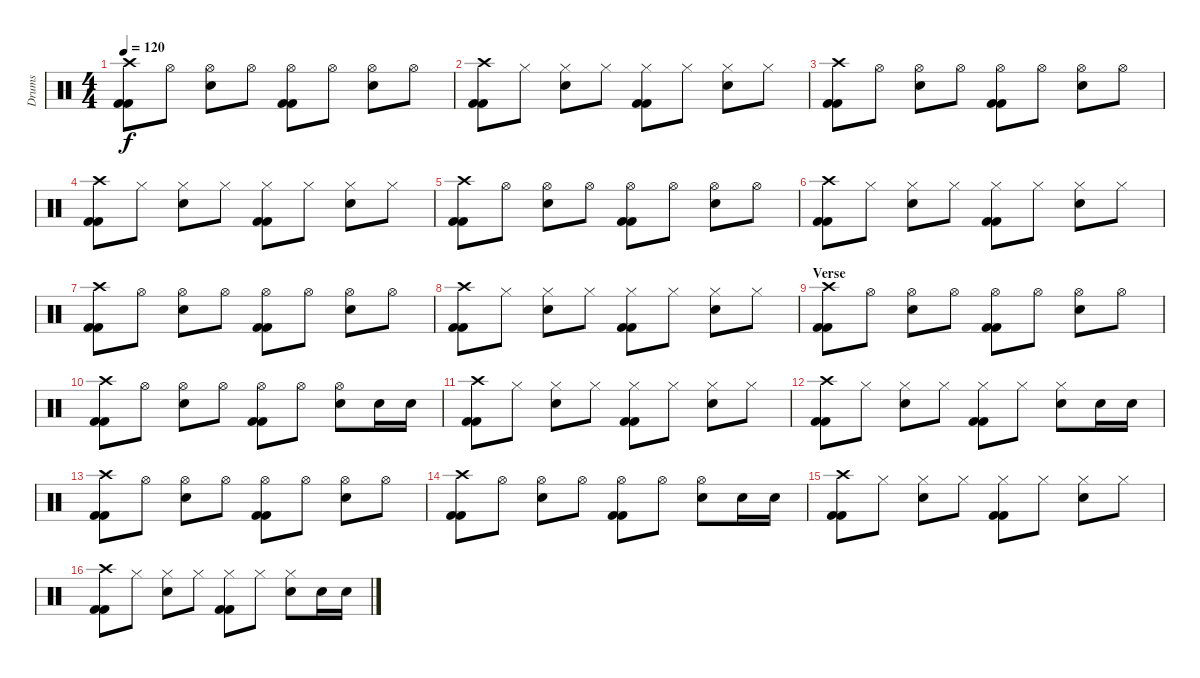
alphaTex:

\track ("Drums" "Drums") {instrument percussion}
\staff {score}
\articulation defaults
\ts (4 4)
\tempo 120
\clef neutral
\ks c
("Crash high (hit)" "Kick (hit) 2" "Kick (hit) 2").8{dy f} "Hi-Hat (open)".8 ("Hi-Hat (open)" "Electric Snare (hit)").8 "Hi-Hat (open)".8 ("Hi-Hat (open)" "Kick (hit) 2" "Kick (hit) 2").8 "Hi-Hat (open)".8 ("Hi-Hat (open)" "Electric Snare (hit)").8 "Hi-Hat (open)".8 |
("Crash high (hit)" "Kick (hit) 2" "Kick (hit) 2").8 "Hi-Hat (closed)".8 ("Hi-Hat (closed)" "Electric Snare (hit)").8 "Hi-Hat (closed)".8 ("Hi-Hat (closed)" "Kick (hit) 2" "Kick (hit) 2").8 "Hi-Hat (closed)".8 ("Hi-Hat (closed)" "Electric Snare (hit)").8 "Hi-Hat (closed)".8 |
("Crash high (hit)" "Kick (hit) 2" "Kick (hit) 2").8 "Hi-Hat (open)".8 ("Hi-Hat (open)" "Electric Snare (hit)").8 "Hi-Hat (open)".8 ("Hi-Hat (open)" "Kick (hit) 2" "Kick (hit) 2").8 "Hi-Hat (open)".8 ("Hi-Hat (open)" "Electric Snare (hit)").8 "Hi-Hat (open)".8 |
("Crash high (hit)" "Kick (hit) 2" "Kick (hit) 2").8 "Hi-Hat (closed)".8 ("Hi-Hat (closed)" "Electric Snare (hit)").8 "Hi-Hat (closed)".8 ("Hi-Hat (closed)" "Kick (hit) 2" "Kick (hit) 2").8 "Hi-Hat (closed)".8 ("Hi-Hat (closed)" "Electric Snare (hit)").8 "Hi-Hat (closed)".8 |
("Crash high (hit)" "Kick (hit) 2" "Kick (hit) 2").8 "Hi-Hat (open)".8 ("Hi-Hat (open)" "Electric Snare (hit)").8 "Hi-Hat (open)".8 ("Hi-Hat (open)" "Kick (hit) 2" "Kick (hit) 2").8 "Hi-Hat (open)".8 ("Hi-Hat (open)" "Electric Snare (hit)").8 "Hi-Hat (open)".8 |
("Crash high (hit)" "Kick (hit) 2" "Kick (hit) 2").8 "Hi-Hat (closed)".8 ("Hi-Hat (closed)" "Electric Snare (hit)").8 "Hi-Hat (closed)".8 ("Hi-Hat (closed)" "Kick (hit) 2" "Kick (hit) 2").8 "Hi-Hat (closed)".8 ("Hi-Hat (closed)" "Electric Snare (hit)").8 "Hi-Hat (closed)".8 |
("Crash high (hit)" "Kick (hit) 2" "Kick (hit) 2").8 "Hi-Hat (open)".8 ("Hi-Hat (open)" "Electric Snare (hit)").8 "Hi-Hat (open)".8 ("Hi-Hat (open)" "Kick (hit) 2" "Kick (hit) 2").8 "Hi-Hat (open)".8 ("Hi-Hat (open)" "Electric Snare (hit)").8 "Hi-Hat (open)".8 |
("Crash high (hit)" "Kick (hit) 2" "Kick (hit) 2").8 "Hi-Hat (closed)".8 ("Hi-Hat (closed)" "Electric Snare (hit)").8 "Hi-Hat (closed)".8 ("Hi-Hat (closed)" "Kick (hit) 2" "Kick (hit) 2").8 "Hi-Hat (closed)".8 ("Hi-Hat (closed)" "Electric Snare (hit)").8 "Hi-Hat (closed)".8 |
\section ("" "Verse")
("Crash high (hit)" "Kick (hit) 2" "Kick (hit) 2").8 "Hi-Hat (open)".8 ("Hi-Hat (open)" "Electric Snare (hit)").8 "Hi-Hat (open)".8 ("Hi-Hat (open)" "Kick (hit) 2" "Kick (hit) 2").8 "Hi-Hat (open)".8 ("Hi-Hat (open)" "Electric Snare (hit)").8 "Hi-Hat (open)".8 |
("Crash high (hit)" "Kick (hit) 2" "Kick (hit) 2").8 "Hi-Hat (open)".8 ("Hi-Hat (open)" "Electric Snare (hit)").8 "Hi-Hat (open)".8 ("Hi-Hat (open)" "Kick (hit) 2" "Kick (hit) 2").8 "Hi-Hat (open)".8 ("Hi-Hat (open)" "Electric Snare (hit)").8 "Electric Snare (hit)".16 "Electric Snare (hit)".16 |
("Crash high (hit)" "Kick (hit) 2" "Kick (hit) 2").8 "Hi-Hat (closed)".8 ("Hi-Hat (closed)" "Electric Snare (hit)").8 "Hi-Hat (closed)".8 ("Hi-Hat (closed)" "Kick (hit) 2" "Kick (hit) 2").8 "Hi-Hat (closed)".8 ("Hi-Hat (closed)" "Electric Snare (hit)").8 "Hi-Hat (closed)".8 |
("Crash high (hit)" "Kick (hit) 2" "Kick (hit) 2").8 "Hi-Hat (closed)".8 ("Hi-Hat (closed)" "Electric Snare (hit)").8 "Hi-Hat (closed)".8 ("Hi-Hat (closed)" "Kick (hit) 2" "Kick (hit) 2").8 "Hi-Hat (closed)".8 ("Hi-Hat (closed)" "Electric Snare (hit)").8 "Electric Snare (hit)".16 "Electric Snare (hit)".16 |
("Crash high (hit)" "Kick (hit) 2" "Kick (hit) 2").8 "Hi-Hat (open)".8 ("Hi-Hat (open)" "Electric Snare (hit)").8 "Hi-Hat (open)".8 ("Hi-Hat (open)" "Kick (hit) 2" "Kick (hit) 2").8 "Hi-Hat (open)".8 ("Hi-Hat (open)" "Electric Snare (hit)").8 "Hi-Hat (open)".8 |
("Crash high (hit)" "Kick (hit) 2" "Kick (hit) 2").8 "Hi-Hat (open)".8 ("Hi-Hat (open)" "Electric Snare (hit)").8 "Hi-Hat (open)".8 ("Hi-Hat (open)" "Kick (hit) 2" "Kick (hit) 2").8 "Hi-Hat (open)".8 ("Hi-Hat (open)" "Electric Snare (hit)").8 "Electric Snare (hit)".16 "Electric Snare (hit)".16 |
("Crash high (hit)" "Kick (hit) 2" "Kick (hit) 2").8 "Hi-Hat (closed)".8 ("Hi-Hat (closed)" "Electric Snare (hit)").8 "Hi-Hat (closed)".8 ("Hi-Hat (closed)" "Kick (hit) 2" "Kick (hit) 2").8 "Hi-Hat (closed)".8 ("Hi-Hat (closed)" "Electric Snare (hit)").8 "Hi-Hat (closed)".8 |
("Crash high (hit)" "Kick (hit) 2" "Kick (hit) 2").8 "Hi-Hat (closed)".8 ("Hi-Hat (closed)" "Electric Snare (hit)").8 "Hi-Hat (closed)".8 ("Hi-Hat (closed)" "Kick (hit) 2" "Kick (hit) 2").8 "Hi-Hat (closed)".8 ("Hi-Hat (closed)" "Electric Snare (hit)").8 "Electric Snare (hit)".16 "Electric Snare (hit)".16
